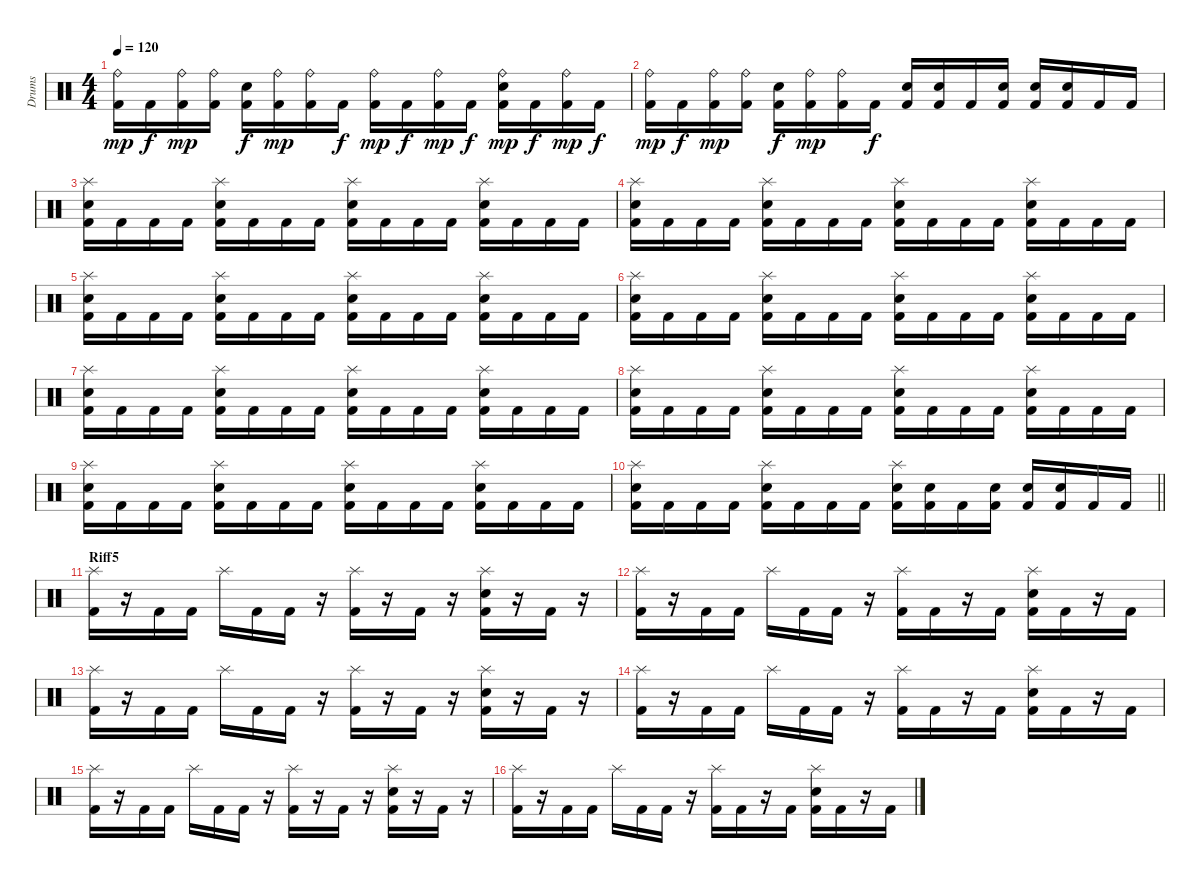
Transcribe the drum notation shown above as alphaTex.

\track ("Drums" "Drums") {instrument percussion}
\staff {score}
\articulation defaults
\ts (4 4)
\tempo 120
\clef neutral
\ks c
("Kick (hit) 2" "Ride (bell)").16{dy mp} "Kick (hit) 2".16{dy f} ("Kick (hit) 2" "Ride (bell)").16{dy mp} ("Kick (hit) 2" "Ride (bell)").16 ("Kick (hit) 2" "Snare (hit) 2").16{dy f} ("Kick (hit) 2" "Ride (bell)").16{dy mp} ("Kick (hit) 2" "Ride (bell)").16 "Kick (hit) 2".16{dy f} ("Kick (hit) 2" "Ride (bell)").16{dy mp} "Kick (hit) 2".16{dy f} ("Kick (hit) 2" "Ride (bell)").16{dy mp} "Kick (hit) 2".16{dy f} ("Kick (hit) 2" "Ride (bell)" "Snare (hit) 2").16{dy mp} "Kick (hit) 2".16{dy f} ("Kick (hit) 2" "Ride (bell)").16{dy mp} "Kick (hit) 2".16{dy f} |
("Kick (hit) 2" "Ride (bell)").16{dy mp} "Kick (hit) 2".16{dy f} ("Kick (hit) 2" "Ride (bell)").16{dy mp} ("Kick (hit) 2" "Ride (bell)").16 ("Kick (hit) 2" "Snare (hit) 2").16{dy f} ("Kick (hit) 2" "Ride (bell)").16{dy mp} ("Kick (hit) 2" "Ride (bell)").16 "Kick (hit) 2".16{dy f} ("Kick (hit) 2" "Snare (hit) 2").16 ("Kick (hit) 2" "Snare (hit) 2").16 "Kick (hit) 2".16 ("Kick (hit) 2" "Snare (hit) 2").16 ("Kick (hit) 2" "Snare (hit) 2").16 ("Kick (hit) 2" "Snare (hit) 2").16 "Kick (hit) 2".16 "Kick (hit) 2".16 |
("Kick (hit) 2" "Splash (hit)" "Snare (hit) 2").16 "Kick (hit) 2".16 "Kick (hit) 2".16 "Kick (hit) 2".16 ("Kick (hit) 2" "Splash (hit)" "Snare (hit) 2").16 "Kick (hit) 2".16 "Kick (hit) 2".16 "Kick (hit) 2".16 ("Kick (hit) 2" "Splash (hit)" "Snare (hit) 2").16 "Kick (hit) 2".16 "Kick (hit) 2".16 "Kick (hit) 2".16 ("Kick (hit) 2" "Splash (hit)" "Snare (hit) 2").16 "Kick (hit) 2".16 "Kick (hit) 2".16 "Kick (hit) 2".16 |
("Kick (hit) 2" "Splash (hit)" "Snare (hit) 2").16 "Kick (hit) 2".16 "Kick (hit) 2".16 "Kick (hit) 2".16 ("Kick (hit) 2" "Splash (hit)" "Snare (hit) 2").16 "Kick (hit) 2".16 "Kick (hit) 2".16 "Kick (hit) 2".16 ("Kick (hit) 2" "Splash (hit)" "Snare (hit) 2").16 "Kick (hit) 2".16 "Kick (hit) 2".16 "Kick (hit) 2".16 ("Kick (hit) 2" "Splash (hit)" "Snare (hit) 2").16 "Kick (hit) 2".16 "Kick (hit) 2".16 "Kick (hit) 2".16 |
("Kick (hit) 2" "Splash (hit)" "Snare (hit) 2").16 "Kick (hit) 2".16 "Kick (hit) 2".16 "Kick (hit) 2".16 ("Kick (hit) 2" "Splash (hit)" "Snare (hit) 2").16 "Kick (hit) 2".16 "Kick (hit) 2".16 "Kick (hit) 2".16 ("Kick (hit) 2" "Splash (hit)" "Snare (hit) 2").16 "Kick (hit) 2".16 "Kick (hit) 2".16 "Kick (hit) 2".16 ("Kick (hit) 2" "Splash (hit)" "Snare (hit) 2").16 "Kick (hit) 2".16 "Kick (hit) 2".16 "Kick (hit) 2".16 |
("Kick (hit) 2" "Splash (hit)" "Snare (hit) 2").16 "Kick (hit) 2".16 "Kick (hit) 2".16 "Kick (hit) 2".16 ("Kick (hit) 2" "Splash (hit)" "Snare (hit) 2").16 "Kick (hit) 2".16 "Kick (hit) 2".16 "Kick (hit) 2".16 ("Kick (hit) 2" "Splash (hit)" "Snare (hit) 2").16 "Kick (hit) 2".16 "Kick (hit) 2".16 "Kick (hit) 2".16 ("Kick (hit) 2" "Splash (hit)" "Snare (hit) 2").16 "Kick (hit) 2".16 "Kick (hit) 2".16 "Kick (hit) 2".16 |
("Kick (hit) 2" "Splash (hit)" "Snare (hit) 2").16 "Kick (hit) 2".16 "Kick (hit) 2".16 "Kick (hit) 2".16 ("Kick (hit) 2" "Splash (hit)" "Snare (hit) 2").16 "Kick (hit) 2".16 "Kick (hit) 2".16 "Kick (hit) 2".16 ("Kick (hit) 2" "Splash (hit)" "Snare (hit) 2").16 "Kick (hit) 2".16 "Kick (hit) 2".16 "Kick (hit) 2".16 ("Kick (hit) 2" "Splash (hit)" "Snare (hit) 2").16 "Kick (hit) 2".16 "Kick (hit) 2".16 "Kick (hit) 2".16 |
("Kick (hit) 2" "Splash (hit)" "Snare (hit) 2").16 "Kick (hit) 2".16 "Kick (hit) 2".16 "Kick (hit) 2".16 ("Kick (hit) 2" "Splash (hit)" "Snare (hit) 2").16 "Kick (hit) 2".16 "Kick (hit) 2".16 "Kick (hit) 2".16 ("Kick (hit) 2" "Splash (hit)" "Snare (hit) 2").16 "Kick (hit) 2".16 "Kick (hit) 2".16 "Kick (hit) 2".16 ("Kick (hit) 2" "Splash (hit)" "Snare (hit) 2").16 "Kick (hit) 2".16 "Kick (hit) 2".16 "Kick (hit) 2".16 |
("Kick (hit) 2" "Splash (hit)" "Snare (hit) 2").16 "Kick (hit) 2".16 "Kick (hit) 2".16 "Kick (hit) 2".16 ("Kick (hit) 2" "Splash (hit)" "Snare (hit) 2").16 "Kick (hit) 2".16 "Kick (hit) 2".16 "Kick (hit) 2".16 ("Kick (hit) 2" "Splash (hit)" "Snare (hit) 2").16 "Kick (hit) 2".16 "Kick (hit) 2".16 "Kick (hit) 2".16 ("Kick (hit) 2" "Splash (hit)" "Snare (hit) 2").16 "Kick (hit) 2".16 "Kick (hit) 2".16 "Kick (hit) 2".16 |
\barLineRight lightlight
("Kick (hit) 2" "Splash (hit)" "Snare (hit) 2").16 "Kick (hit) 2".16 "Kick (hit) 2".16 "Kick (hit) 2".16 ("Kick (hit) 2" "Splash (hit)" "Snare (hit) 2").16 "Kick (hit) 2".16 "Kick (hit) 2".16 "Kick (hit) 2".16 ("Kick (hit) 2" "Splash (hit)" "Snare (hit) 2").16 ("Kick (hit) 2" "Snare (hit) 2").16 "Kick (hit) 2".16 ("Kick (hit) 2" "Snare (hit) 2").16 ("Kick (hit) 2" "Snare (hit) 2").16 ("Kick (hit) 2" "Snare (hit) 2").16 "Kick (hit) 2".16 "Kick (hit) 2".16 |
\section ("" "Riff5")
("Kick (hit) 2" "Splash (hit)").16 r.16 "Kick (hit) 2".16 "Kick (hit) 2".16 "Splash (hit)".16 "Kick (hit) 2".16 "Kick (hit) 2".16 r.16 ("Kick (hit) 2" "Splash (hit)").16 r.16 "Kick (hit) 2".16 r.16 ("Kick (hit) 2" "Splash (hit)" "Snare (hit) 2").16 r.16 "Kick (hit) 2".16 r.16 |
("Kick (hit) 2" "Splash (hit)").16 r.16 "Kick (hit) 2".16 "Kick (hit) 2".16 "Splash (hit)".16 "Kick (hit) 2".16 "Kick (hit) 2".16 r.16 ("Kick (hit) 2" "Splash (hit)").16 "Kick (hit) 2".16 r.16 "Kick (hit) 2".16 ("Kick (hit) 2" "Splash (hit)" "Snare (hit) 2").16 "Kick (hit) 2".16 r.16 "Kick (hit) 2".16 |
("Kick (hit) 2" "Splash (hit)").16 r.16 "Kick (hit) 2".16 "Kick (hit) 2".16 "Splash (hit)".16 "Kick (hit) 2".16 "Kick (hit) 2".16 r.16 ("Kick (hit) 2" "Splash (hit)").16 r.16 "Kick (hit) 2".16 r.16 ("Kick (hit) 2" "Splash (hit)" "Snare (hit) 2").16 r.16 "Kick (hit) 2".16 r.16 |
("Kick (hit) 2" "Splash (hit)").16 r.16 "Kick (hit) 2".16 "Kick (hit) 2".16 "Splash (hit)".16 "Kick (hit) 2".16 "Kick (hit) 2".16 r.16 ("Kick (hit) 2" "Splash (hit)").16 "Kick (hit) 2".16 r.16 "Kick (hit) 2".16 ("Kick (hit) 2" "Splash (hit)" "Snare (hit) 2").16 "Kick (hit) 2".16 r.16 "Kick (hit) 2".16 |
("Kick (hit) 2" "Splash (hit)").16 r.16 "Kick (hit) 2".16 "Kick (hit) 2".16 "Splash (hit)".16 "Kick (hit) 2".16 "Kick (hit) 2".16 r.16 ("Kick (hit) 2" "Splash (hit)").16 r.16 "Kick (hit) 2".16 r.16 ("Kick (hit) 2" "Splash (hit)" "Snare (hit) 2").16 r.16 "Kick (hit) 2".16 r.16 |
("Kick (hit) 2" "Splash (hit)").16 r.16 "Kick (hit) 2".16 "Kick (hit) 2".16 "Splash (hit)".16 "Kick (hit) 2".16 "Kick (hit) 2".16 r.16 ("Kick (hit) 2" "Splash (hit)").16 "Kick (hit) 2".16 r.16 "Kick (hit) 2".16 ("Kick (hit) 2" "Splash (hit)" "Snare (hit) 2").16 "Kick (hit) 2".16 r.16 "Kick (hit) 2".16
